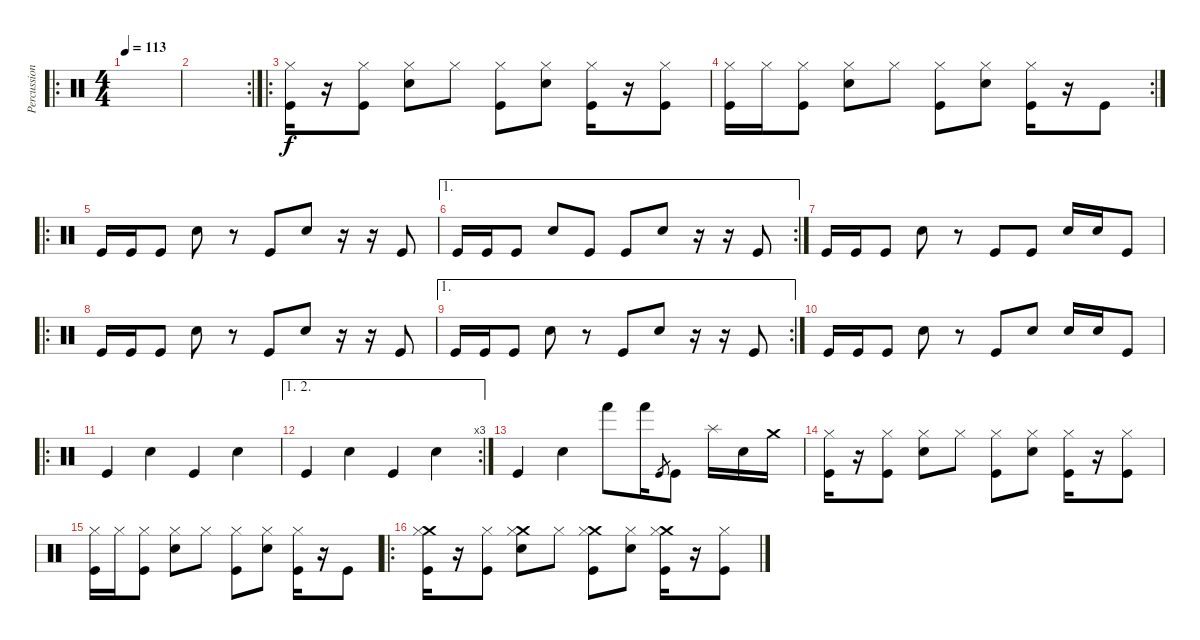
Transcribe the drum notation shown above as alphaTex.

\track ("Percussion" "Percussion") {instrument percussion}
\staff {score}
\articulation defaults
\ro
\ts (4 4)
\tempo 113
\clef neutral
\ks c
|
\rc 2
|
\ro
("Hi-Hat (closed)" "Kick (hit)").16 r.16 ("Hi-Hat (closed)" "Kick (hit)").8 ("Hi-Hat (closed)" "Snare (hit) 2").8 "Hi-Hat (closed)".8 ("Hi-Hat (closed)" "Kick (hit)").8 ("Hi-Hat (closed)" "Snare (hit) 2").8 ("Hi-Hat (closed)" "Kick (hit)").16 r.16 ("Hi-Hat (closed)" "Kick (hit)").8 |
\rc 2
("Hi-Hat (closed)" "Kick (hit)").16 "Hi-Hat (closed)".16 ("Hi-Hat (closed)" "Kick (hit)").8 ("Hi-Hat (closed)" "Snare (hit) 2").8 "Hi-Hat (closed)".8 ("Hi-Hat (closed)" "Kick (hit)").8 ("Hi-Hat (closed)" "Snare (hit) 2").8 ("Hi-Hat (closed)" "Kick (hit)").16 r.16 "Kick (hit)".8 |
\ro "Kick (hit)".16 "Kick (hit)".16 "Kick (hit)".8 "Snare (hit) 2".8
r.8 "Kick (hit)".8 "Snare (hit) 2".8 r.16 r.16 "Kick (hit)".8 |
\ae 1
\rc 2 "Kick (hit)".16 "Kick (hit)".16 "Kick (hit)".8 "Snare (hit) 2".8 "Kick (hit)".8 "Kick (hit)".8 "Snare (hit) 2".8
r.16 r.16 "Kick (hit)".8 |
"Kick (hit)".16 "Kick (hit)".16 "Kick (hit)".8 "Snare (hit) 2".8 r.8 "Kick (hit)".8 "Kick (hit)".8 "Snare (hit) 2".16 "Snare (hit) 2".16 "Kick (hit)".8 |
\ro "Kick (hit)".16 "Kick (hit)".16 "Kick (hit)".8 "Snare (hit) 2".8
r.8 "Kick (hit)".8 "Snare (hit) 2".8 r.16 r.16 "Kick (hit)".8 |
\ae 1
\rc 2 "Kick (hit)".16 "Kick (hit)".16 "Kick (hit)".8 "Snare (hit) 2".8
r.8 "Kick (hit)".8 "Snare (hit) 2".8 r.16 r.16 "Kick (hit)".8 |
"Kick (hit)".16 "Kick (hit)".16 "Kick (hit)".8 "Snare (hit) 2".8 r.8 "Kick (hit)".8 "Snare (hit) 2".8 "Snare (hit) 2".16 "Snare (hit) 2".16 "Kick (hit)".8 |
\ro "Kick (hit)".4 "Snare (hit) 2".4 "Kick (hit)".4 "Snare (hit) 2".4
|
\ae (1 2)
\rc 3 "Kick (hit)".4 "Snare (hit) 2".4 "Kick (hit)".4 "Snare (hit) 2".4
|
"Kick (hit)".4 "Snare (hit) 2".4 "Hand (hit)".8 "Hand (hit)".16 "Kick (hit)".8{gr} "Kick (hit)".8 "Splash (hit)".16 "Snare (hit) 2".16 "Crash medium (hit)".16 |
("Hi-Hat (closed)" "Kick (hit)").16 r.16 ("Hi-Hat (closed)" "Kick (hit)").8 ("Hi-Hat (closed)" "Snare (hit) 2").8 "Hi-Hat (closed)".8 ("Hi-Hat (closed)" "Kick (hit)").8 ("Hi-Hat (closed)" "Snare (hit) 2").8 ("Hi-Hat (closed)" "Kick (hit)").16 r.16 ("Hi-Hat (closed)" "Kick (hit)").8 |
("Hi-Hat (closed)" "Kick (hit)").16 "Hi-Hat (closed)".16 ("Hi-Hat (closed)" "Kick (hit)").8 ("Hi-Hat (closed)" "Snare (hit) 2").8 "Hi-Hat (closed)".8 ("Hi-Hat (closed)" "Kick (hit)").8 ("Hi-Hat (closed)" "Snare (hit) 2").8 ("Hi-Hat (closed)" "Kick (hit)").16 r.16 "Kick (hit)".8 |
\ro
("Crash medium (hit)" "Hi-Hat (closed)" "Kick (hit)").16 r.16 ("Hi-Hat (closed)" "Kick (hit)").8 ("Crash medium (hit)" "Hi-Hat (closed)" "Snare (hit) 2").8 "Hi-Hat (closed)".8 ("Crash medium (hit)" "Hi-Hat (closed)" "Kick (hit)").8 ("Hi-Hat (closed)" "Snare (hit) 2").8 ("Crash medium (hit)" "Hi-Hat (closed)" "Kick (hit)").16 r.16 ("Hi-Hat (closed)" "Kick (hit)").8
